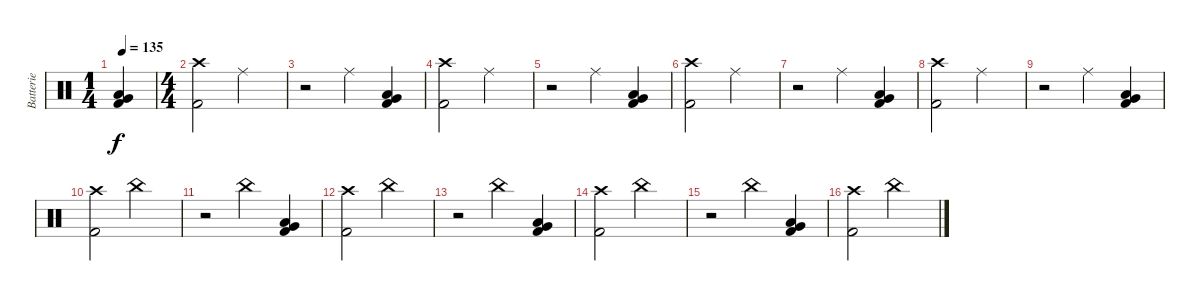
\track ("Batterie" "Batterie") {instrument percussion}
\staff {score}
\articulation defaults
\ts (1 4)
\tempo 135
\clef neutral
\ks c
("Very Low Tom (hit)" "Low Floor Tom (hit)" "Kick (hit) 2").4{dy f} |
\ts (4 4)
("Crash high (hit)" "Kick (hit) 2").2 "Ride (middle)".2 |
r.2 "Ride (middle)".4 ("Very Low Tom (hit)" "Low Floor Tom (hit)" "Kick (hit) 2").4 |
("Crash high (hit)" "Kick (hit) 2").2 "Ride (middle)".2 |
r.2 "Ride (middle)".4 ("Very Low Tom (hit)" "Low Floor Tom (hit)" "Kick (hit) 2").4 |
("Crash high (hit)" "Kick (hit) 2").2 "Ride (middle)".2 |
r.2 "Ride (middle)".4 ("Very Low Tom (hit)" "Low Floor Tom (hit)" "Kick (hit) 2").4 |
("Crash high (hit)" "Kick (hit) 2").2 "Ride (middle)".2 |
r.2 "Ride (middle)".4 ("Very Low Tom (hit)" "Low Floor Tom (hit)" "Kick (hit) 2").4 |
("Crash high (hit)" "Kick (hit) 2").2 "China (hit)".2 |
r.2 "China (hit)".4 ("Very Low Tom (hit)" "Low Floor Tom (hit)" "Kick (hit) 2").4 |
("Crash high (hit)" "Kick (hit) 2").2 "China (hit)".2 |
r.2 "China (hit)".4 ("Very Low Tom (hit)" "Low Floor Tom (hit)" "Kick (hit) 2").4 |
("Crash high (hit)" "Kick (hit) 2").2 "China (hit)".2 |
r.2 "China (hit)".4 ("Very Low Tom (hit)" "Low Floor Tom (hit)" "Kick (hit) 2").4 |
("Crash high (hit)" "Kick (hit) 2").2 "China (hit)".2
